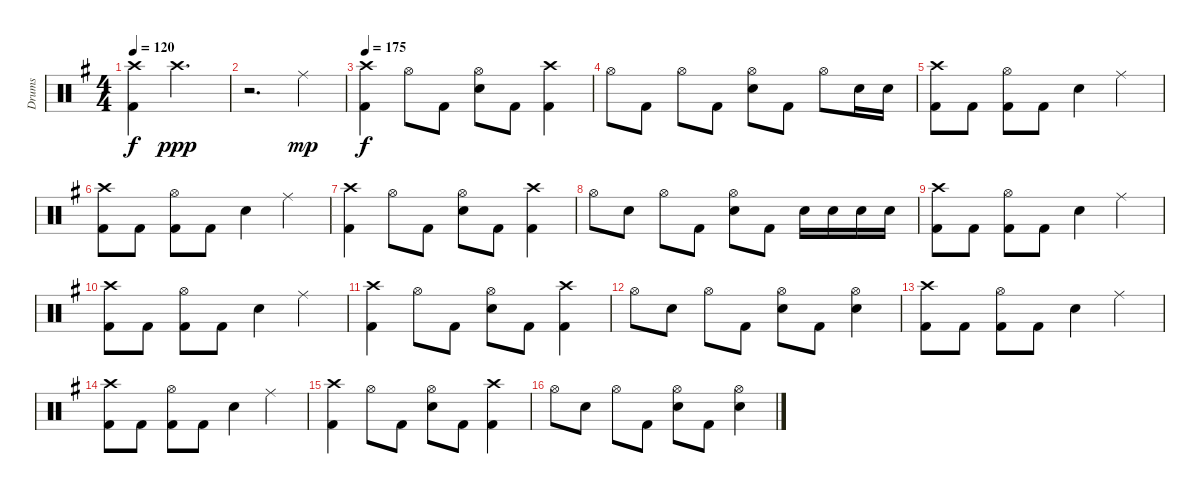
\track ("Drums" "Drums") {instrument percussion}
\staff {score}
\articulation defaults
\ts (4 4)
\tempo 120
\clef neutral
\ks g
("Crash high (hit)" "Kick (hit) 2").4{dy f} "Crash high (hit)".2{d dy ppp} |
r.2{d} "Ride (middle)".4{dy mp} |
\tempo 175
("Crash high (hit)" "Kick (hit) 2").4{dy f} "Hi-Hat (open)".8 "Kick (hit) 2".8 ("Hi-Hat (open)" "Electric Snare (hit)").8 "Kick (hit) 2".8 ("Crash high (hit)" "Kick (hit) 2").4 |
"Hi-Hat (open)".8 "Kick (hit) 2".8 "Hi-Hat (open)".8 "Kick (hit) 2".8 ("Hi-Hat (open)" "Electric Snare (hit)").8 "Kick (hit) 2".8 "Hi-Hat (open)".8 "Electric Snare (hit)".16 "Electric Snare (hit)".16 |
("Crash high (hit)" "Kick (hit) 2").8 "Kick (hit) 2".8 ("Hi-Hat (open)" "Kick (hit) 2").8 "Kick (hit) 2".8 "Electric Snare (hit)".4 "Ride (middle)".4 |
("Crash high (hit)" "Kick (hit) 2").8 "Kick (hit) 2".8 ("Hi-Hat (open)" "Kick (hit) 2").8 "Kick (hit) 2".8 "Electric Snare (hit)".4 "Ride (middle)".4 |
("Crash high (hit)" "Kick (hit) 2").4 "Hi-Hat (open)".8 "Kick (hit) 2".8 ("Hi-Hat (open)" "Electric Snare (hit)").8 "Kick (hit) 2".8 ("Crash high (hit)" "Kick (hit) 2").4 |
"Hi-Hat (open)".8 "Electric Snare (hit)".8 "Hi-Hat (open)".8 "Kick (hit) 2".8 ("Hi-Hat (open)" "Electric Snare (hit)").8 "Kick (hit) 2".8 "Electric Snare (hit)".16 "Electric Snare (hit)".16 "Electric Snare (hit)".16 "Electric Snare (hit)".16 |
("Crash high (hit)" "Kick (hit) 2").8 "Kick (hit) 2".8 ("Hi-Hat (open)" "Kick (hit) 2").8 "Kick (hit) 2".8 "Electric Snare (hit)".4 "Ride (middle)".4 |
("Crash high (hit)" "Kick (hit) 2").8 "Kick (hit) 2".8 ("Hi-Hat (open)" "Kick (hit) 2").8 "Kick (hit) 2".8 "Electric Snare (hit)".4 "Ride (middle)".4 |
("Crash high (hit)" "Kick (hit) 2").4 "Hi-Hat (open)".8 "Kick (hit) 2".8 ("Hi-Hat (open)" "Electric Snare (hit)").8 "Kick (hit) 2".8 ("Crash high (hit)" "Kick (hit) 2").4 |
"Hi-Hat (open)".8 "Electric Snare (hit)".8 "Hi-Hat (open)".8 "Kick (hit) 2".8 ("Hi-Hat (open)" "Electric Snare (hit)").8 "Kick (hit) 2".8 ("Hi-Hat (open)" "Electric Snare (hit)").4 |
("Crash high (hit)" "Kick (hit) 2").8 "Kick (hit) 2".8 ("Hi-Hat (open)" "Kick (hit) 2").8 "Kick (hit) 2".8 "Electric Snare (hit)".4 "Ride (middle)".4 |
("Crash high (hit)" "Kick (hit) 2").8 "Kick (hit) 2".8 ("Hi-Hat (open)" "Kick (hit) 2").8 "Kick (hit) 2".8 "Electric Snare (hit)".4 "Ride (middle)".4 |
("Crash high (hit)" "Kick (hit) 2").4 "Hi-Hat (open)".8 "Kick (hit) 2".8 ("Hi-Hat (open)" "Electric Snare (hit)").8 "Kick (hit) 2".8 ("Crash high (hit)" "Kick (hit) 2").4 |
"Hi-Hat (open)".8 "Electric Snare (hit)".8 "Hi-Hat (open)".8 "Kick (hit) 2".8 ("Hi-Hat (open)" "Electric Snare (hit)").8 "Kick (hit) 2".8 ("Hi-Hat (open)" "Electric Snare (hit)").4
